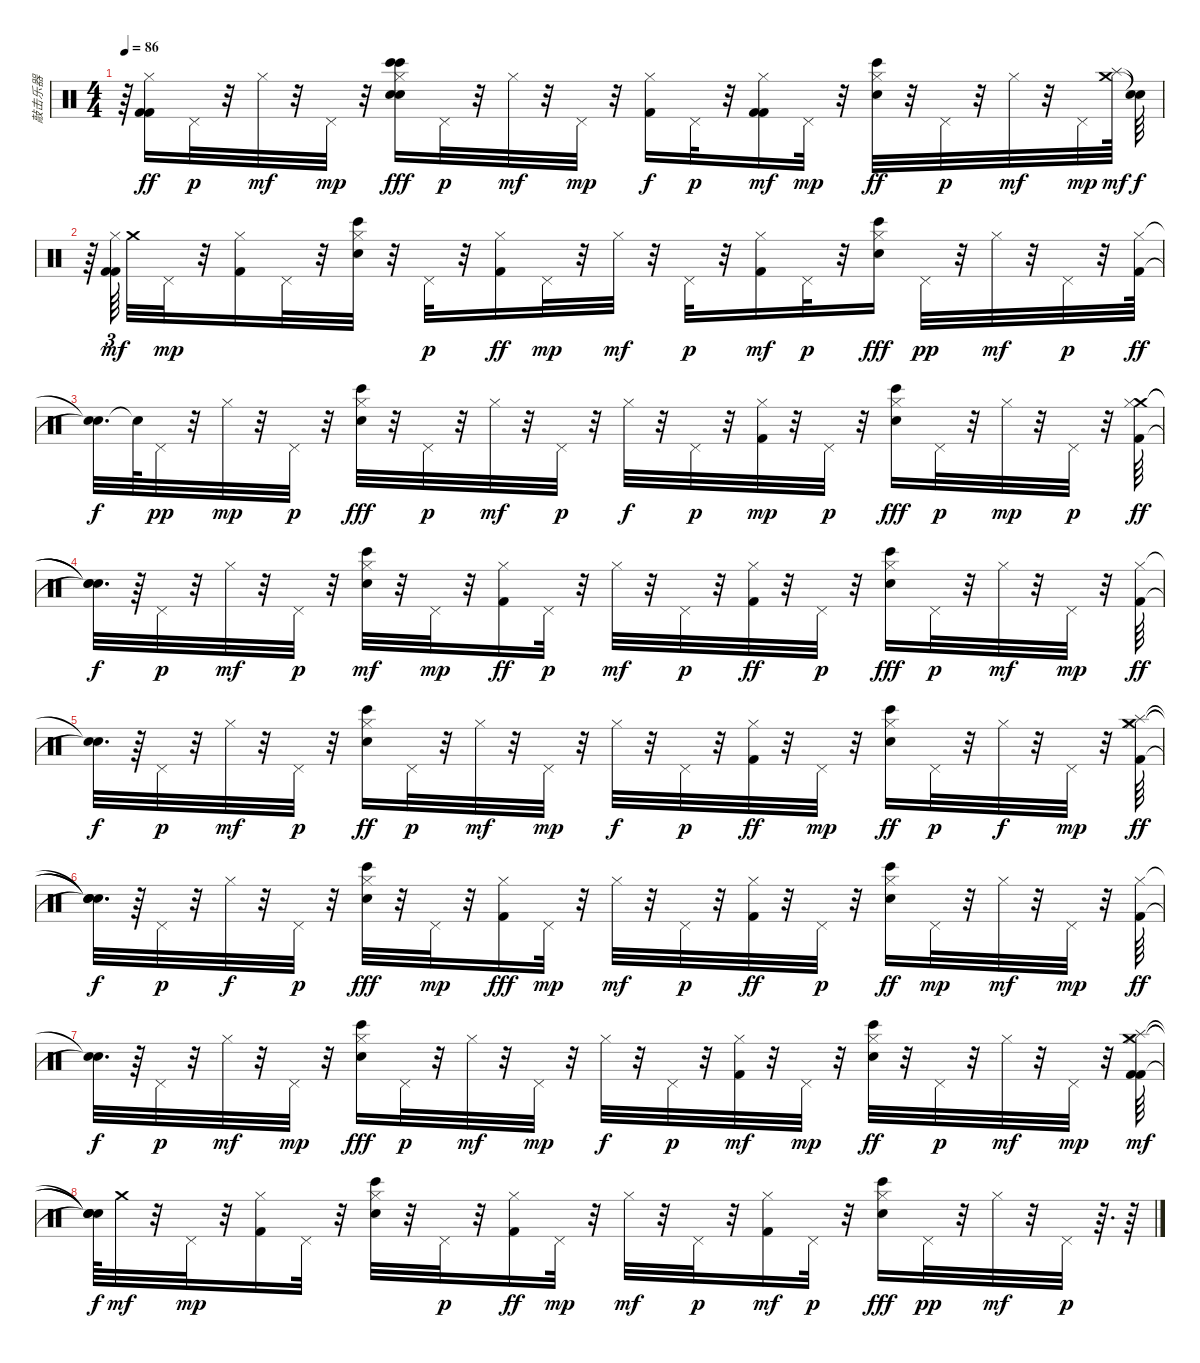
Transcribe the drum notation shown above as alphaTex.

\track ("敲击乐器" "敲击乐器") {instrument percussion}
\staff {score}
\articulation defaults
\ts (4 4)
\tempo 86
\clef neutral
\ks c
r.64{dy p} ("Hi-Hat (closed)" "Kick (hit) 2" "Kick (hit) 2").16{dy ff} "Pedal Hi-Hat (hit)".32{dy p} r.32 "Hi-Hat (closed)".32{dy mf} r.32 "Pedal Hi-Hat (hit)".32{dy mp} r.32 ("Hi-Hat (closed)" "Bongo High (hit)" "Electric Snare (hit)" "Electric Snare (hit)" "Bongo High (hit)").16{dy fff} "Pedal Hi-Hat (hit)".32{dy p} r.32 "Hi-Hat (closed)".32{dy mf} r.32 "Pedal Hi-Hat (hit)".32{dy mp} r.32 ("Hi-Hat (closed)" "Kick (hit) 2").16{dy f} "Pedal Hi-Hat (hit)".32{dy p} r.32 ("Hi-Hat (closed)" "Kick (hit) 2" "Kick (hit) 2").16{dy mf} "Pedal Hi-Hat (hit)".32{dy mp} r.32 ("Hi-Hat (closed)" "Electric Snare (hit)" "Bongo High (hit)").32{dy ff} r.32 "Pedal Hi-Hat (hit)".32{dy p} r.32 "Hi-Hat (closed)".32{dy mf} r.32 "Pedal Hi-Hat (hit)".32{dy mp} ("Splash (hit)" "Crash medium (hit)").64{dy mf} ("Snare (hit)"{t} "Snare (hit)"{t}).64{dy f} |
r.64 ("Hi-Hat (closed)" "Kick (hit) 2" "Kick (hit) 2").64{tu (3 2) dy mf beam splitsecondary} "Crash medium (hit)".32 "Pedal Hi-Hat (hit)".32{dy mp} r.32 ("Hi-Hat (closed)" "Kick (hit) 2").16 "Pedal Hi-Hat (hit)".32 r.32 ("Hi-Hat (closed)" "Electric Snare (hit)" "Bongo High (hit)").32 r.32 "Pedal Hi-Hat (hit)".32{dy p} r.32 ("Hi-Hat (closed)" "Kick (hit) 2").16{dy ff} "Pedal Hi-Hat (hit)".32{dy mp} r.32 "Hi-Hat (closed)".32{dy mf} r.32 "Pedal Hi-Hat (hit)".32{dy p} r.32 ("Hi-Hat (closed)" "Kick (hit) 2").16{dy mf} "Pedal Hi-Hat (hit)".32{dy p} r.32 ("Hi-Hat (closed)" "Electric Snare (hit)" "Bongo High (hit)").16{dy fff} "Pedal Hi-Hat (hit)".32{dy pp} r.32 "Hi-Hat (closed)".32{dy mf} r.32 "Pedal Hi-Hat (hit)".32{dy p} r.32 ("Hi-Hat (closed)" "Kick (hit) 2").64{dy ff} |
("Snare (hit)"{t} "Snare (hit)"{t}).32{d dy f} "Snare (hit)"{t}.64 "Pedal Hi-Hat (hit)".32{dy pp} r.32 "Hi-Hat (closed)".32{dy mp} r.32 "Pedal Hi-Hat (hit)".32{dy p} r.32 ("Hi-Hat (closed)" "Electric Snare (hit)" "Bongo High (hit)").32{dy fff} r.32 "Pedal Hi-Hat (hit)".32{dy p} r.32 "Hi-Hat (closed)".32{dy mf} r.32 "Pedal Hi-Hat (hit)".32{dy p} r.32 "Hi-Hat (closed)".32{dy f} r.32 "Pedal Hi-Hat (hit)".32{dy p} r.32 ("Hi-Hat (closed)" "Kick (hit) 2").32{dy mp} r.32 "Pedal Hi-Hat (hit)".32{dy p} r.32 ("Hi-Hat (closed)" "Electric Snare (hit)" "Bongo High (hit)").16{dy fff} "Pedal Hi-Hat (hit)".32{dy p} r.32 "Hi-Hat (closed)".32{dy mp} r.32 "Pedal Hi-Hat (hit)".32{dy p} r.32 ("Crash medium (hit)" "Hi-Hat (closed)" "Kick (hit) 2").64{dy ff} |
("Snare (hit)"{t} "Snare (hit)"{t} "Snare (hit)"{t}).32{d dy f} r.64 "Pedal Hi-Hat (hit)".32{dy p} r.32 "Hi-Hat (closed)".32{dy mf} r.32 "Pedal Hi-Hat (hit)".32{dy p} r.32 ("Hi-Hat (closed)" "Electric Snare (hit)" "Bongo High (hit)").32{dy mf} r.32 "Pedal Hi-Hat (hit)".32{dy mp} r.32 ("Hi-Hat (closed)" "Kick (hit) 2").16{dy ff} "Pedal Hi-Hat (hit)".32{dy p} r.32 "Hi-Hat (closed)".32{dy mf} r.32 "Pedal Hi-Hat (hit)".32{dy p} r.32 ("Hi-Hat (closed)" "Kick (hit) 2").32{dy ff} r.32 "Pedal Hi-Hat (hit)".32{dy p} r.32 ("Hi-Hat (closed)" "Electric Snare (hit)" "Bongo High (hit)").16{dy fff} "Pedal Hi-Hat (hit)".32{dy p} r.32 "Hi-Hat (closed)".32{dy mf} r.32 "Pedal Hi-Hat (hit)".32{dy mp} r.32 ("Hi-Hat (closed)" "Kick (hit) 2").64{dy ff} |
("Snare (hit)"{t} "Snare (hit)"{t}).32{d dy f} r.64 "Pedal Hi-Hat (hit)".32{dy p} r.32 "Hi-Hat (closed)".32{dy mf} r.32 "Pedal Hi-Hat (hit)".32{dy p} r.32 ("Hi-Hat (closed)" "Electric Snare (hit)" "Bongo High (hit)").16{dy ff} "Pedal Hi-Hat (hit)".32{dy p} r.32 "Hi-Hat (closed)".32{dy mf} r.32 "Pedal Hi-Hat (hit)".32{dy mp} r.32 "Hi-Hat (closed)".32{dy f} r.32 "Pedal Hi-Hat (hit)".32{dy p} r.32 ("Hi-Hat (closed)" "Kick (hit) 2").32{dy ff} r.32 "Pedal Hi-Hat (hit)".32{dy mp} r.32 ("Hi-Hat (closed)" "Electric Snare (hit)" "Bongo High (hit)").16{dy ff} "Pedal Hi-Hat (hit)".32{dy p} r.32 "Hi-Hat (closed)".32{dy f} r.32 "Pedal Hi-Hat (hit)".32{dy mp} r.32 ("Splash (hit)" "Crash medium (hit)" "Hi-Hat (closed)" "Kick (hit) 2").64{dy ff} |
("Snare (hit)"{t} "Snare (hit)"{t} "Snare (hit)"{t} "Snare (hit)"{t}).32{d dy f} r.64 "Pedal Hi-Hat (hit)".32{dy p} r.32 "Hi-Hat (closed)".32{dy f} r.32 "Pedal Hi-Hat (hit)".32{dy p} r.32 ("Hi-Hat (closed)" "Bongo High (hit)" "Electric Snare (hit)").32{dy fff} r.32 "Pedal Hi-Hat (hit)".32{dy mp} r.32 ("Hi-Hat (closed)" "Kick (hit) 2").16{dy fff} "Pedal Hi-Hat (hit)".32{dy mp} r.32 "Hi-Hat (closed)".32{dy mf} r.32 "Pedal Hi-Hat (hit)".32{dy p} r.32 ("Hi-Hat (closed)" "Kick (hit) 2").32{dy ff} r.32 "Pedal Hi-Hat (hit)".32{dy p} r.32 ("Hi-Hat (closed)" "Bongo High (hit)" "Electric Snare (hit)").16{dy ff} "Pedal Hi-Hat (hit)".32{dy mp} r.32 "Hi-Hat (closed)".32{dy mf} r.32 "Pedal Hi-Hat (hit)".32{dy mp} r.32 ("Hi-Hat (closed)" "Kick (hit) 2").64{dy ff} |
("Snare (hit)"{t} "Snare (hit)"{t}).32{d dy f} r.64 "Pedal Hi-Hat (hit)".32{dy p} r.32 "Hi-Hat (closed)".32{dy mf} r.32 "Pedal Hi-Hat (hit)".32{dy mp} r.32 ("Hi-Hat (closed)" "Bongo High (hit)" "Electric Snare (hit)").16{dy fff} "Pedal Hi-Hat (hit)".32{dy p} r.32 "Hi-Hat (closed)".32{dy mf} r.32 "Pedal Hi-Hat (hit)".32{dy mp} r.32 "Hi-Hat (closed)".32{dy f} r.32 "Pedal Hi-Hat (hit)".32{dy p} r.32 ("Hi-Hat (closed)" "Kick (hit) 2").32{dy mf} r.32 "Pedal Hi-Hat (hit)".32{dy mp} r.32 ("Hi-Hat (closed)" "Electric Snare (hit)" "Bongo High (hit)").32{dy ff} r.32 "Pedal Hi-Hat (hit)".32{dy p} r.32 "Hi-Hat (closed)".32{dy mf} r.32 "Pedal Hi-Hat (hit)".32{dy mp} r.32 ("Splash (hit)" "Crash medium (hit)" "Hi-Hat (closed)" "Kick (hit) 2" "Kick (hit) 2").64{dy mf} |
("Snare (hit)"{t} "Snare (hit)"{t} "Snare (hit)"{t} "Snare (hit)"{t}).64{dy f} "Crash medium (hit)".32{dy mf} r.32 "Pedal Hi-Hat (hit)".32{dy mp} r.32 ("Hi-Hat (closed)" "Kick (hit) 2").16 "Pedal Hi-Hat (hit)".32 r.32 ("Hi-Hat (closed)" "Electric Snare (hit)" "Bongo High (hit)").32 r.32 "Pedal Hi-Hat (hit)".32{dy p} r.32 ("Hi-Hat (closed)" "Kick (hit) 2").16{dy ff} "Pedal Hi-Hat (hit)".32{dy mp} r.32 "Hi-Hat (closed)".32{dy mf} r.32 "Pedal Hi-Hat (hit)".32{dy p} r.32 ("Hi-Hat (closed)" "Kick (hit) 2").16{dy mf} "Pedal Hi-Hat (hit)".32{dy p} r.32 ("Hi-Hat (closed)" "Electric Snare (hit)" "Bongo High (hit)").16{dy fff} "Pedal Hi-Hat (hit)".32{dy pp} r.32 "Hi-Hat (closed)".32{dy mf} r.32 "Pedal Hi-Hat (hit)".32{dy p} r.64{d} r.64
